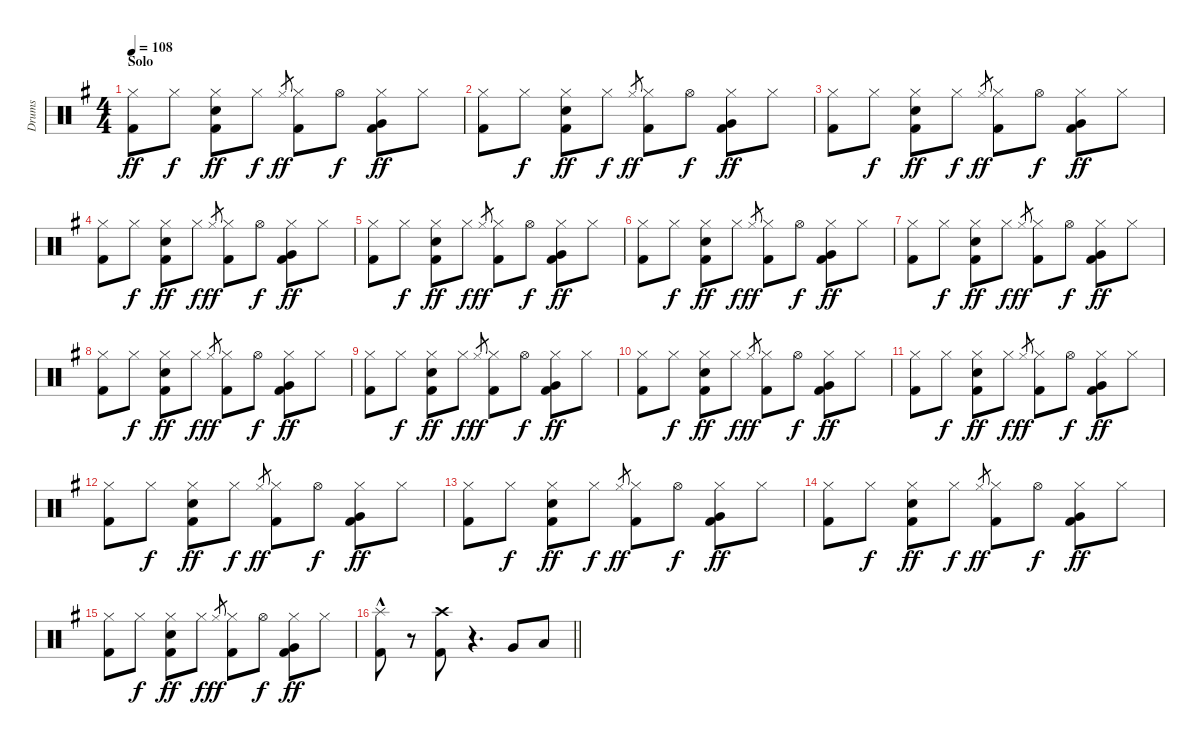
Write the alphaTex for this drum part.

\track ("Drums" "Drums") {instrument percussion}
\staff {score}
\articulation defaults
\ts (4 4)
\section ("" "Solo")
\tempo 108
\clef neutral
\ks g
("Hi-Hat (closed)" "Kick (hit) 2").8{dy ff} "Hi-Hat (closed)".8{dy f} ("Hi-Hat (closed)" "Snare (hit) 2" "Kick (hit) 2").8{dy ff} "Hi-Hat (closed)".8{dy f} "Hi-Hat (closed)".8{gr dy ff} ("Hi-Hat (closed)" "Kick (hit) 2").8 "Hi-Hat (open)".8{dy f} ("Hi-Hat (closed)" "Very Low Tom (hit)" "Kick (hit) 2").8{dy ff} "Hi-Hat (closed)".8 |
("Hi-Hat (closed)" "Kick (hit) 2").8 "Hi-Hat (closed)".8{dy f} ("Hi-Hat (closed)" "Snare (hit) 2" "Kick (hit) 2").8{dy ff} "Hi-Hat (closed)".8{dy f} "Hi-Hat (closed)".8{gr dy ff} ("Hi-Hat (closed)" "Kick (hit) 2").8 "Hi-Hat (open)".8{dy f} ("Hi-Hat (closed)" "Very Low Tom (hit)" "Kick (hit) 2").8{dy ff} "Hi-Hat (closed)".8 |
("Hi-Hat (closed)" "Kick (hit) 2").8 "Hi-Hat (closed)".8{dy f} ("Hi-Hat (closed)" "Snare (hit) 2" "Kick (hit) 2").8{dy ff} "Hi-Hat (closed)".8{dy f} "Hi-Hat (closed)".8{gr dy ff} ("Hi-Hat (closed)" "Kick (hit) 2").8 "Hi-Hat (open)".8{dy f} ("Hi-Hat (closed)" "Very Low Tom (hit)" "Kick (hit) 2").8{dy ff} "Hi-Hat (closed)".8 |
("Hi-Hat (closed)" "Kick (hit) 2").8 "Hi-Hat (closed)".8{dy f} ("Hi-Hat (closed)" "Snare (hit) 2" "Kick (hit) 2").8{dy ff} "Hi-Hat (closed)".8{dy f} "Hi-Hat (closed)".8{gr dy ff} ("Hi-Hat (closed)" "Kick (hit) 2").8 "Hi-Hat (open)".8{dy f} ("Hi-Hat (closed)" "Very Low Tom (hit)" "Kick (hit) 2").8{dy ff} "Hi-Hat (closed)".8 |
("Hi-Hat (closed)" "Kick (hit) 2").8 "Hi-Hat (closed)".8{dy f} ("Hi-Hat (closed)" "Snare (hit) 2" "Kick (hit) 2").8{dy ff} "Hi-Hat (closed)".8{dy f} "Hi-Hat (closed)".8{gr dy ff} ("Hi-Hat (closed)" "Kick (hit) 2").8 "Hi-Hat (open)".8{dy f} ("Hi-Hat (closed)" "Very Low Tom (hit)" "Kick (hit) 2").8{dy ff} "Hi-Hat (closed)".8 |
("Hi-Hat (closed)" "Kick (hit) 2").8 "Hi-Hat (closed)".8{dy f} ("Hi-Hat (closed)" "Snare (hit) 2" "Kick (hit) 2").8{dy ff} "Hi-Hat (closed)".8{dy f} "Hi-Hat (closed)".8{gr dy ff} ("Hi-Hat (closed)" "Kick (hit) 2").8 "Hi-Hat (open)".8{dy f} ("Hi-Hat (closed)" "Very Low Tom (hit)" "Kick (hit) 2").8{dy ff} "Hi-Hat (closed)".8 |
("Hi-Hat (closed)" "Kick (hit) 2").8 "Hi-Hat (closed)".8{dy f} ("Hi-Hat (closed)" "Snare (hit) 2" "Kick (hit) 2").8{dy ff} "Hi-Hat (closed)".8{dy f} "Hi-Hat (closed)".8{gr dy ff} ("Hi-Hat (closed)" "Kick (hit) 2").8 "Hi-Hat (open)".8{dy f} ("Hi-Hat (closed)" "Very Low Tom (hit)" "Kick (hit) 2").8{dy ff} "Hi-Hat (closed)".8 |
("Hi-Hat (closed)" "Kick (hit) 2").8 "Hi-Hat (closed)".8{dy f} ("Hi-Hat (closed)" "Snare (hit) 2" "Kick (hit) 2").8{dy ff} "Hi-Hat (closed)".8{dy f} "Hi-Hat (closed)".8{gr dy ff} ("Hi-Hat (closed)" "Kick (hit) 2").8 "Hi-Hat (open)".8{dy f} ("Hi-Hat (closed)" "Very Low Tom (hit)" "Kick (hit) 2").8{dy ff} "Hi-Hat (closed)".8 |
("Hi-Hat (closed)" "Kick (hit) 2").8 "Hi-Hat (closed)".8{dy f} ("Hi-Hat (closed)" "Snare (hit) 2" "Kick (hit) 2").8{dy ff} "Hi-Hat (closed)".8{dy f} "Hi-Hat (closed)".8{gr dy ff} ("Hi-Hat (closed)" "Kick (hit) 2").8 "Hi-Hat (open)".8{dy f} ("Hi-Hat (closed)" "Very Low Tom (hit)" "Kick (hit) 2").8{dy ff} "Hi-Hat (closed)".8 |
("Hi-Hat (closed)" "Kick (hit) 2").8 "Hi-Hat (closed)".8{dy f} ("Hi-Hat (closed)" "Snare (hit) 2" "Kick (hit) 2").8{dy ff} "Hi-Hat (closed)".8{dy f} "Hi-Hat (closed)".8{gr dy ff} ("Hi-Hat (closed)" "Kick (hit) 2").8 "Hi-Hat (open)".8{dy f} ("Hi-Hat (closed)" "Very Low Tom (hit)" "Kick (hit) 2").8{dy ff} "Hi-Hat (closed)".8 |
("Hi-Hat (closed)" "Kick (hit) 2").8 "Hi-Hat (closed)".8{dy f} ("Hi-Hat (closed)" "Snare (hit) 2" "Kick (hit) 2").8{dy ff} "Hi-Hat (closed)".8{dy f} "Hi-Hat (closed)".8{gr dy ff} ("Hi-Hat (closed)" "Kick (hit) 2").8 "Hi-Hat (open)".8{dy f} ("Hi-Hat (closed)" "Very Low Tom (hit)" "Kick (hit) 2").8{dy ff} "Hi-Hat (closed)".8 |
("Hi-Hat (closed)" "Kick (hit) 2").8 "Hi-Hat (closed)".8{dy f} ("Hi-Hat (closed)" "Snare (hit) 2" "Kick (hit) 2").8{dy ff} "Hi-Hat (closed)".8{dy f} "Hi-Hat (closed)".8{gr dy ff} ("Hi-Hat (closed)" "Kick (hit) 2").8 "Hi-Hat (open)".8{dy f} ("Hi-Hat (closed)" "Very Low Tom (hit)" "Kick (hit) 2").8{dy ff} "Hi-Hat (closed)".8 |
("Hi-Hat (closed)" "Kick (hit) 2").8 "Hi-Hat (closed)".8{dy f} ("Hi-Hat (closed)" "Snare (hit) 2" "Kick (hit) 2").8{dy ff} "Hi-Hat (closed)".8{dy f} "Hi-Hat (closed)".8{gr dy ff} ("Hi-Hat (closed)" "Kick (hit) 2").8 "Hi-Hat (open)".8{dy f} ("Hi-Hat (closed)" "Very Low Tom (hit)" "Kick (hit) 2").8{dy ff} "Hi-Hat (closed)".8 |
("Hi-Hat (closed)" "Kick (hit) 2").8 "Hi-Hat (closed)".8{dy f} ("Hi-Hat (closed)" "Snare (hit) 2" "Kick (hit) 2").8{dy ff} "Hi-Hat (closed)".8{dy f} "Hi-Hat (closed)".8{gr dy ff} ("Hi-Hat (closed)" "Kick (hit) 2").8 "Hi-Hat (open)".8{dy f} ("Hi-Hat (closed)" "Very Low Tom (hit)" "Kick (hit) 2").8{dy ff} "Hi-Hat (closed)".8 |
("Hi-Hat (closed)" "Kick (hit) 2").8 "Hi-Hat (closed)".8{dy f} ("Hi-Hat (closed)" "Snare (hit) 2" "Kick (hit) 2").8{dy ff} "Hi-Hat (closed)".8{dy f} "Hi-Hat (closed)".8{gr dy ff} ("Hi-Hat (closed)" "Kick (hit) 2").8 "Hi-Hat (open)".8{dy f} ("Hi-Hat (closed)" "Very Low Tom (hit)" "Kick (hit) 2").8{dy ff} "Hi-Hat (closed)".8 |
\barLineRight lightlight
("Splash (hit)"{hac} "Kick (hit) 2").8 r.8 ("Crash high (hit)" "Kick (hit) 2").8 r.4{d} "Very Low Tom (hit)".8 "Low Floor Tom (hit)".8
